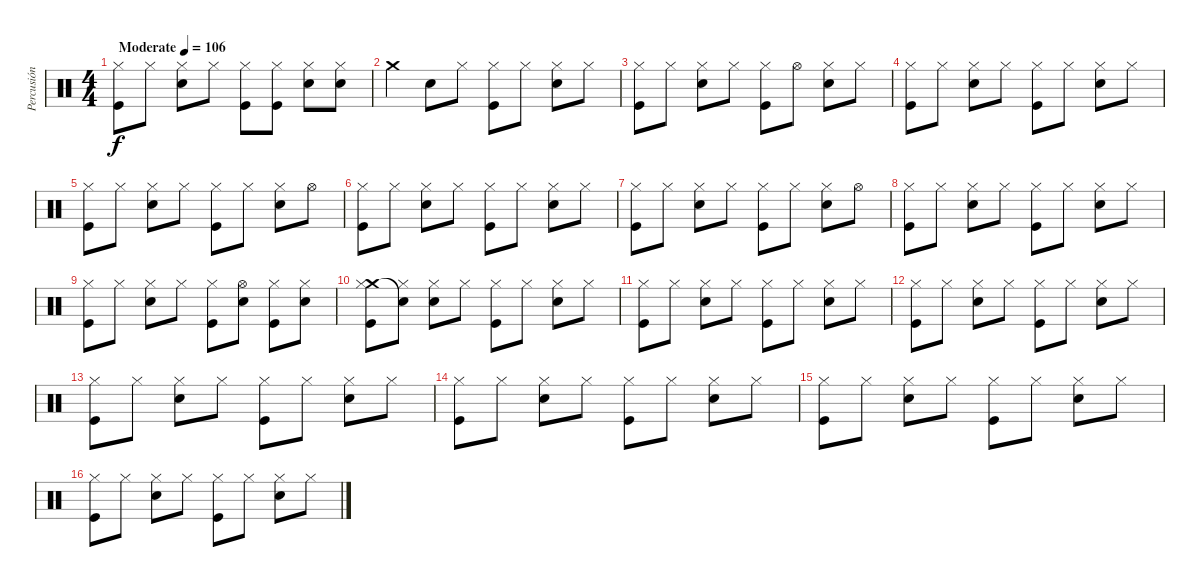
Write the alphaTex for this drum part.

\track ("Percusión" "Percusión") {instrument percussion}
\staff {score}
\articulation defaults
\ts (4 4)
\tempo (106 "Moderate")
\clef neutral
\ks c
("Hi-Hat (closed)" "Kick (hit)").8{dy f} "Hi-Hat (closed)".8 ("Hi-Hat (closed)" "Snare (hit) 2").8 "Hi-Hat (closed)".8 ("Hi-Hat (closed)" "Kick (hit)").8 ("Hi-Hat (closed)" "Kick (hit)").8 ("Hi-Hat (closed)" "Snare (hit) 2").8 ("Hi-Hat (closed)" "Snare (hit) 2").8 |
"Crash medium (hit)".4 "Snare (hit) 2".8 "Hi-Hat (closed)".8 ("Hi-Hat (closed)" "Kick (hit)").8 "Hi-Hat (closed)".8 ("Hi-Hat (closed)" "Snare (hit) 2").8 "Hi-Hat (closed)".8 |
("Hi-Hat (closed)" "Kick (hit)").8 "Hi-Hat (closed)".8 ("Hi-Hat (closed)" "Snare (hit) 2").8 "Hi-Hat (closed)".8 ("Hi-Hat (closed)" "Kick (hit)").8 "Hi-Hat (open)".8 ("Hi-Hat (closed)" "Snare (hit) 2").8 "Hi-Hat (closed)".8 |
("Hi-Hat (closed)" "Kick (hit)").8 "Hi-Hat (closed)".8 ("Hi-Hat (closed)" "Snare (hit) 2").8 "Hi-Hat (closed)".8 ("Hi-Hat (closed)" "Kick (hit)").8 "Hi-Hat (closed)".8 ("Hi-Hat (closed)" "Snare (hit) 2").8 "Hi-Hat (closed)".8 |
("Hi-Hat (closed)" "Kick (hit)").8 "Hi-Hat (closed)".8 ("Hi-Hat (closed)" "Snare (hit) 2").8 "Hi-Hat (closed)".8 ("Hi-Hat (closed)" "Kick (hit)").8 "Hi-Hat (closed)".8 ("Hi-Hat (closed)" "Snare (hit) 2").8 "Hi-Hat (open)".8 |
("Hi-Hat (closed)" "Kick (hit)").8 "Hi-Hat (closed)".8 ("Hi-Hat (closed)" "Snare (hit) 2").8 "Hi-Hat (closed)".8 ("Hi-Hat (closed)" "Kick (hit)").8 "Hi-Hat (closed)".8 ("Hi-Hat (closed)" "Snare (hit) 2").8 "Hi-Hat (closed)".8 |
("Hi-Hat (closed)" "Kick (hit)").8 "Hi-Hat (closed)".8 ("Hi-Hat (closed)" "Snare (hit) 2").8 "Hi-Hat (closed)".8 ("Hi-Hat (closed)" "Kick (hit)").8 "Hi-Hat (closed)".8 ("Hi-Hat (closed)" "Snare (hit) 2").8 "Hi-Hat (open)".8 |
("Hi-Hat (closed)" "Kick (hit)").8 "Hi-Hat (closed)".8 ("Hi-Hat (closed)" "Snare (hit) 2").8 "Hi-Hat (closed)".8 ("Hi-Hat (closed)" "Kick (hit)").8 "Hi-Hat (closed)".8 ("Hi-Hat (closed)" "Snare (hit) 2").8 "Hi-Hat (closed)".8 |
("Hi-Hat (closed)" "Kick (hit)").8 "Hi-Hat (closed)".8 ("Hi-Hat (closed)" "Snare (hit) 2").8 "Hi-Hat (closed)".8 ("Hi-Hat (closed)" "Kick (hit)").8 ("Hi-Hat (open)" "Snare (hit) 2").8 ("Hi-Hat (closed)" "Kick (hit)").8 ("Hi-Hat (closed)" "Snare (hit) 2").8 |
("Crash medium (hit)" "Hi-Hat (closed)" "Kick (hit)").8 ("Snare (hit)"{t} "Hi-Hat (closed)").8 ("Hi-Hat (closed)" "Snare (hit) 2").8 "Hi-Hat (closed)".8 ("Hi-Hat (closed)" "Kick (hit)").8 "Hi-Hat (closed)".8 ("Hi-Hat (closed)" "Snare (hit) 2").8 "Hi-Hat (closed)".8 |
("Hi-Hat (closed)" "Kick (hit)").8 "Hi-Hat (closed)".8 ("Hi-Hat (closed)" "Snare (hit) 2").8 "Hi-Hat (closed)".8 ("Hi-Hat (closed)" "Kick (hit)").8 "Hi-Hat (closed)".8 ("Hi-Hat (closed)" "Snare (hit) 2").8 "Hi-Hat (closed)".8 |
("Hi-Hat (closed)" "Kick (hit)").8 "Hi-Hat (closed)".8 ("Hi-Hat (closed)" "Snare (hit) 2").8 "Hi-Hat (closed)".8 ("Hi-Hat (closed)" "Kick (hit)").8 "Hi-Hat (closed)".8 ("Hi-Hat (closed)" "Snare (hit) 2").8 "Hi-Hat (closed)".8 |
("Hi-Hat (closed)" "Kick (hit)").8 "Hi-Hat (closed)".8 ("Hi-Hat (closed)" "Snare (hit) 2").8 "Hi-Hat (closed)".8 ("Hi-Hat (closed)" "Kick (hit)").8 "Hi-Hat (closed)".8 ("Hi-Hat (closed)" "Snare (hit) 2").8 "Hi-Hat (closed)".8 |
("Hi-Hat (closed)" "Kick (hit)").8 "Hi-Hat (closed)".8 ("Hi-Hat (closed)" "Snare (hit) 2").8 "Hi-Hat (closed)".8 ("Hi-Hat (closed)" "Kick (hit)").8 "Hi-Hat (closed)".8 ("Hi-Hat (closed)" "Snare (hit) 2").8 "Hi-Hat (closed)".8 |
("Hi-Hat (closed)" "Kick (hit)").8 "Hi-Hat (closed)".8 ("Hi-Hat (closed)" "Snare (hit) 2").8 "Hi-Hat (closed)".8 ("Hi-Hat (closed)" "Kick (hit)").8 "Hi-Hat (closed)".8 ("Hi-Hat (closed)" "Snare (hit) 2").8 "Hi-Hat (closed)".8 |
("Hi-Hat (closed)" "Kick (hit)").8 "Hi-Hat (closed)".8 ("Hi-Hat (closed)" "Snare (hit) 2").8 "Hi-Hat (closed)".8 ("Hi-Hat (closed)" "Kick (hit)").8 "Hi-Hat (closed)".8 ("Hi-Hat (closed)" "Snare (hit) 2").8 "Hi-Hat (closed)".8
